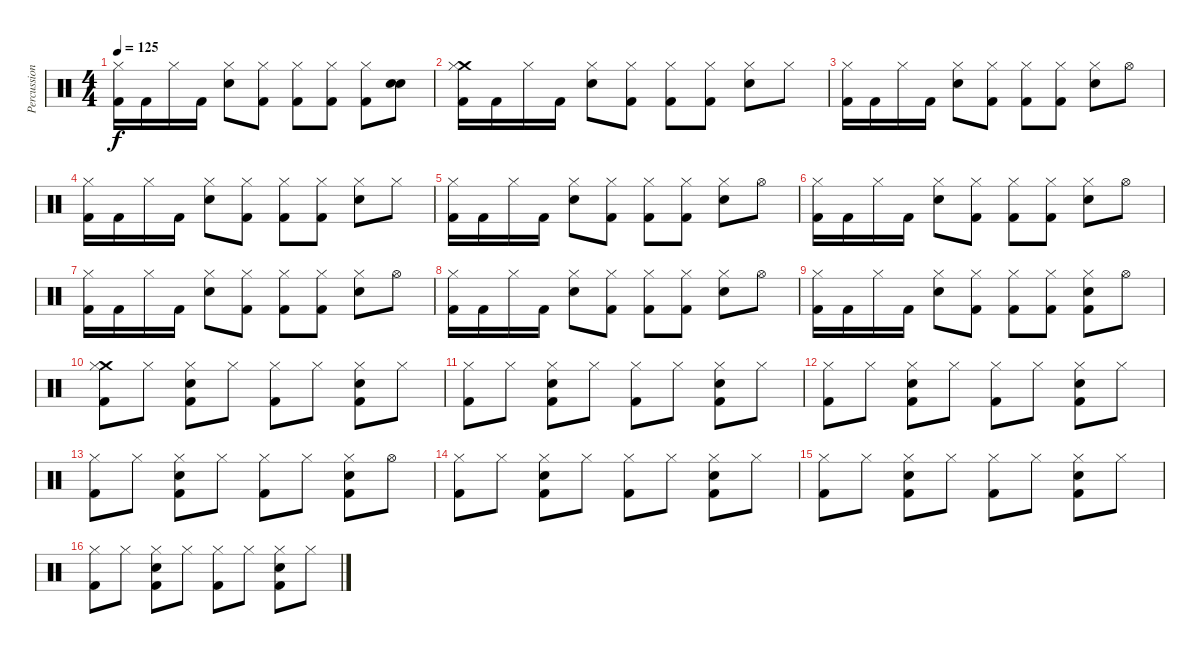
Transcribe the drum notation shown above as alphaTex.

\track ("Percussion" "Percussion") {instrument percussion}
\staff {score}
\articulation defaults
\ts (4 4)
\tempo 125
\clef neutral
\ks c
("Hi-Hat (closed)" "Kick (hit) 2").16{dy f} "Kick (hit) 2".16 "Hi-Hat (closed)".16 "Kick (hit) 2".16 ("Hi-Hat (closed)" "Electric Snare (hit)").8 ("Hi-Hat (closed)" "Kick (hit) 2").8 ("Hi-Hat (closed)" "Kick (hit) 2").8 ("Hi-Hat (closed)" "Kick (hit) 2").8 ("Hi-Hat (closed)" "Kick (hit) 2").8 ("Electric Snare (hit)" "Electric Snare (hit)").8 |
("Crash medium (hit)" "Hi-Hat (closed)" "Kick (hit) 2").16 "Kick (hit) 2".16 "Hi-Hat (closed)".16 "Kick (hit) 2".16 ("Hi-Hat (closed)" "Electric Snare (hit)").8 ("Hi-Hat (closed)" "Kick (hit) 2").8 ("Hi-Hat (closed)" "Kick (hit) 2").8 ("Hi-Hat (closed)" "Kick (hit) 2").8 ("Hi-Hat (closed)" "Electric Snare (hit)").8 "Hi-Hat (closed)".8 |
("Hi-Hat (closed)" "Kick (hit) 2").16 "Kick (hit) 2".16 "Hi-Hat (closed)".16 "Kick (hit) 2".16 ("Hi-Hat (closed)" "Electric Snare (hit)").8 ("Hi-Hat (closed)" "Kick (hit) 2").8 ("Hi-Hat (closed)" "Kick (hit) 2").8 ("Hi-Hat (closed)" "Kick (hit) 2").8 ("Hi-Hat (closed)" "Electric Snare (hit)").8 "Hi-Hat (open)".8 |
("Hi-Hat (closed)" "Kick (hit) 2").16 "Kick (hit) 2".16 "Hi-Hat (closed)".16 "Kick (hit) 2".16 ("Hi-Hat (closed)" "Electric Snare (hit)").8 ("Hi-Hat (closed)" "Kick (hit) 2").8 ("Hi-Hat (closed)" "Kick (hit) 2").8 ("Hi-Hat (closed)" "Kick (hit) 2").8 ("Hi-Hat (closed)" "Electric Snare (hit)").8 "Hi-Hat (closed)".8 |
("Hi-Hat (closed)" "Kick (hit) 2").16 "Kick (hit) 2".16 "Hi-Hat (closed)".16 "Kick (hit) 2".16 ("Hi-Hat (closed)" "Electric Snare (hit)").8 ("Hi-Hat (closed)" "Kick (hit) 2").8 ("Hi-Hat (closed)" "Kick (hit) 2").8 ("Hi-Hat (closed)" "Kick (hit) 2").8 ("Hi-Hat (closed)" "Electric Snare (hit)").8 "Hi-Hat (open)".8 |
("Hi-Hat (closed)" "Kick (hit) 2").16 "Kick (hit) 2".16 "Hi-Hat (closed)".16 "Kick (hit) 2".16 ("Hi-Hat (closed)" "Electric Snare (hit)").8 ("Hi-Hat (closed)" "Kick (hit) 2").8 ("Hi-Hat (closed)" "Kick (hit) 2").8 ("Hi-Hat (closed)" "Kick (hit) 2").8 ("Hi-Hat (closed)" "Electric Snare (hit)").8 "Hi-Hat (open)".8 |
("Hi-Hat (closed)" "Kick (hit) 2").16 "Kick (hit) 2".16 "Hi-Hat (closed)".16 "Kick (hit) 2".16 ("Hi-Hat (closed)" "Electric Snare (hit)").8 ("Hi-Hat (closed)" "Kick (hit) 2").8 ("Hi-Hat (closed)" "Kick (hit) 2").8 ("Hi-Hat (closed)" "Kick (hit) 2").8 ("Hi-Hat (closed)" "Electric Snare (hit)").8 "Hi-Hat (open)".8 |
("Hi-Hat (closed)" "Kick (hit) 2").16 "Kick (hit) 2".16 "Hi-Hat (closed)".16 "Kick (hit) 2".16 ("Hi-Hat (closed)" "Electric Snare (hit)").8 ("Hi-Hat (closed)" "Kick (hit) 2").8 ("Hi-Hat (closed)" "Kick (hit) 2").8 ("Hi-Hat (closed)" "Kick (hit) 2").8 ("Hi-Hat (closed)" "Electric Snare (hit)").8 "Hi-Hat (open)".8 |
("Hi-Hat (closed)" "Kick (hit) 2").16 "Kick (hit) 2".16 "Hi-Hat (closed)".16 "Kick (hit) 2".16 ("Hi-Hat (closed)" "Electric Snare (hit)").8 ("Hi-Hat (closed)" "Kick (hit) 2").8 ("Hi-Hat (closed)" "Kick (hit) 2").8 ("Hi-Hat (closed)" "Kick (hit) 2").8 ("Hi-Hat (closed)" "Electric Snare (hit)" "Kick (hit) 2").8 "Hi-Hat (open)".8 |
("Crash medium (hit)" "Hi-Hat (closed)" "Kick (hit) 2").8 "Hi-Hat (closed)".8 ("Hi-Hat (closed)" "Electric Snare (hit)" "Kick (hit) 2").8 "Hi-Hat (closed)".8 ("Hi-Hat (closed)" "Kick (hit) 2").8 "Hi-Hat (closed)".8 ("Hi-Hat (closed)" "Electric Snare (hit)" "Kick (hit) 2").8 "Hi-Hat (closed)".8 |
("Hi-Hat (closed)" "Kick (hit) 2").8 "Hi-Hat (closed)".8 ("Hi-Hat (closed)" "Electric Snare (hit)" "Kick (hit) 2").8 "Hi-Hat (closed)".8 ("Hi-Hat (closed)" "Kick (hit) 2").8 "Hi-Hat (closed)".8 ("Hi-Hat (closed)" "Electric Snare (hit)" "Kick (hit) 2").8 "Hi-Hat (closed)".8 |
("Hi-Hat (closed)" "Kick (hit) 2").8 "Hi-Hat (closed)".8 ("Hi-Hat (closed)" "Electric Snare (hit)" "Kick (hit) 2").8 "Hi-Hat (closed)".8 ("Hi-Hat (closed)" "Kick (hit) 2").8 "Hi-Hat (closed)".8 ("Hi-Hat (closed)" "Electric Snare (hit)" "Kick (hit) 2").8 "Hi-Hat (closed)".8 |
("Hi-Hat (closed)" "Kick (hit) 2").8 "Hi-Hat (closed)".8 ("Hi-Hat (closed)" "Electric Snare (hit)" "Kick (hit) 2").8 "Hi-Hat (closed)".8 ("Hi-Hat (closed)" "Kick (hit) 2").8 "Hi-Hat (closed)".8 ("Hi-Hat (closed)" "Electric Snare (hit)" "Kick (hit) 2").8 "Hi-Hat (open)".8 |
("Hi-Hat (closed)" "Kick (hit) 2").8 "Hi-Hat (closed)".8 ("Hi-Hat (closed)" "Electric Snare (hit)" "Kick (hit) 2").8 "Hi-Hat (closed)".8 ("Hi-Hat (closed)" "Kick (hit) 2").8 "Hi-Hat (closed)".8 ("Hi-Hat (closed)" "Electric Snare (hit)" "Kick (hit) 2").8 "Hi-Hat (closed)".8 |
("Hi-Hat (closed)" "Kick (hit) 2").8 "Hi-Hat (closed)".8 ("Hi-Hat (closed)" "Electric Snare (hit)" "Kick (hit) 2").8 "Hi-Hat (closed)".8 ("Hi-Hat (closed)" "Kick (hit) 2").8 "Hi-Hat (closed)".8 ("Hi-Hat (closed)" "Electric Snare (hit)" "Kick (hit) 2").8 "Hi-Hat (closed)".8 |
("Hi-Hat (closed)" "Kick (hit) 2").8 "Hi-Hat (closed)".8 ("Hi-Hat (closed)" "Electric Snare (hit)" "Kick (hit) 2").8 "Hi-Hat (closed)".8 ("Hi-Hat (closed)" "Kick (hit) 2").8 "Hi-Hat (closed)".8 ("Hi-Hat (closed)" "Electric Snare (hit)" "Kick (hit) 2").8 "Hi-Hat (closed)".8
